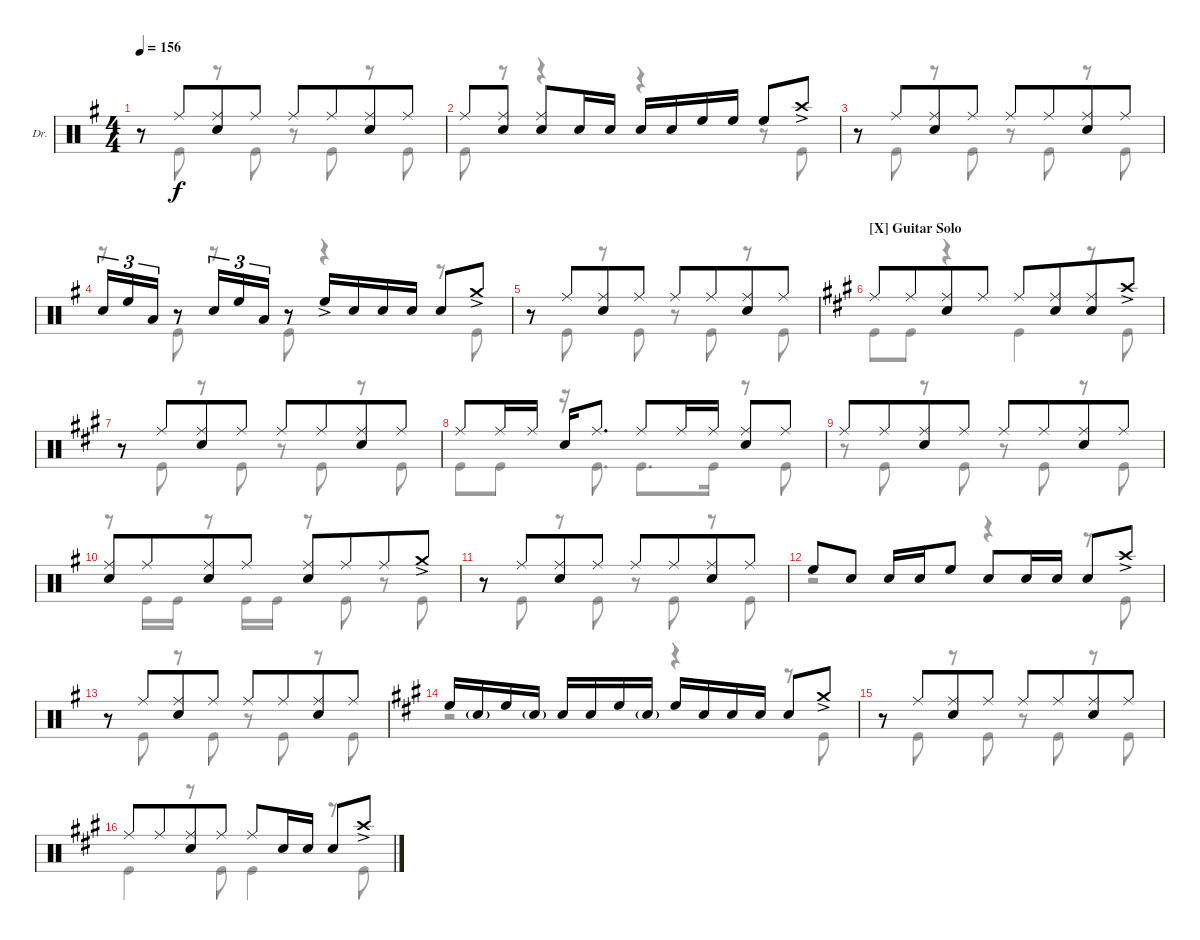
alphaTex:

\defaultSystemsLayout 4
\bracketExtendMode groupsimilarinstruments
\firstSystemTrackNameOrientation horizontal
\otherSystemsTrackNameOrientation horizontal
\track ("Drums" "Dr.") {instrument percussion}
\staff {score}
\articulation defaults
\voice
\ts (4 4)
\tempo 156
\clef neutral
\scale
0.296625
\ks g
r.8{dy f} "Ride (middle)".8{beam merge} ("Ride (middle)" "Snare (hit) 2").8 "Ride (middle)".8 "Ride (middle)".8 "Ride (middle)".8{beam merge} ("Ride (middle)" "Snare (hit) 2").8 "Ride (middle)".8 |
\scale
0.356872 "Ride (middle)".8 ("Ride (middle)" "Snare (hit) 2").8 ("Ride (middle)" "Snare (hit) 2").8 "Snare (hit) 2".16 "Snare (hit) 2".16 "Snare (hit) 2".16 "Snare (hit) 2".16 "High Floor Tom (hit)".16 "High Floor Tom (hit)".16 "High Floor Tom (hit)".8 "Crash high (hit)"{ac}.8 |
\scale
0.342372 r.8 "Ride (middle)".8{beam merge} ("Ride (middle)" "Snare (hit) 2").8 "Ride (middle)".8 "Ride (middle)".8 "Ride (middle)".8{beam merge} ("Ride (middle)" "Snare (hit) 2").8 "Ride (middle)".8 |
\scale
0.377852 "Snare (hit) 2".16{tu (3 2)} "High Floor Tom (hit)".16{tu (3 2)} "Low Tom (hit)".16{tu (3 2)} r.8 "Snare (hit) 2".16{tu (3 2)} "High Floor Tom (hit)".16{tu (3 2)} "Low Tom (hit)".16{tu (3 2)} r.8 "High Floor Tom (hit)"{ac}.16 "Snare (hit) 2".16 "Snare (hit) 2".16 "Snare (hit) 2".16 "Snare (hit) 2".8 "Crash medium (hit)"{ac}.8 |
\scale
0.27922 r.8 "Ride (middle)".8{beam merge} ("Ride (middle)" "Snare (hit) 2").8 "Ride (middle)".8 "Ride (middle)".8 "Ride (middle)".8{beam merge} ("Ride (middle)" "Snare (hit) 2").8 "Ride (middle)".8 |
\section ("X" "Guitar Solo")
\ks a "Ride (middle)".8 "Ride (middle)".8{beam merge}
("Ride (middle)" "Snare (hit) 2").8 "Ride (middle)".8 "Ride (middle)".8 ("Ride (middle)" "Snare (hit) 2").8{beam merge} ("Ride (middle)" "Snare (hit) 2").8 "Crash high (hit)"{ac}.8 |
r.8 "Ride (middle)".8{beam merge} ("Ride (middle)" "Snare (hit) 2").8 "Ride (middle)".8 "Ride (middle)".8 "Ride (middle)".8{beam merge} ("Ride (middle)" "Snare (hit) 2").8 "Ride (middle)".8 |
"Ride (middle)".8 "Ride (middle)".16 "Ride (middle)".16 "Snare (hit) 2".16 "Ride (middle)".8{d} "Ride (middle)".8 "Ride (middle)".16 "Ride (middle)".16 ("Ride (middle)" "Snare (hit) 2").8 "Ride (middle)".8 |
\scale
0.335589 "Ride (middle)".8 "Ride (middle)".8{beam merge} ("Ride (middle)" "Snare (hit) 2").8 "Ride (middle)".8 "Ride (middle)".8 "Ride (middle)".8{beam merge} ("Ride (middle)" "Snare (hit) 2").8 "Ride (middle)".8 |
\scale
0.330329
\ks g
("Snare (hit) 2" "Ride (middle)").8 "Ride (middle)".8{beam merge} ("Snare (hit) 2" "Ride (middle)").8{beam merge} "Ride (middle)".8{beam split} ("Snare (hit) 2" "Ride (middle)").8{beam merge} "Ride (middle)".8{beam merge} "Ride (middle)".8{beam merge} "Crash medium (hit)"{ac}.8{beam split} |
\scale
0.333409 r.8 "Ride (middle)".8{beam merge} ("Ride (middle)" "Snare (hit) 2").8 "Ride (middle)".8 "Ride (middle)".8 "Ride (middle)".8{beam merge} ("Ride (middle)" "Snare (hit) 2").8 "Ride (middle)".8 |
\scale
0.337499 "High Floor Tom (hit)".8 "Snare (hit) 2".8 "Snare (hit) 2".16 "Snare (hit) 2".16 "High Floor Tom (hit)".8 "Snare (hit) 2".8 "Snare (hit) 2".16 "Snare (hit) 2".16 "Snare (hit) 2".8 "Crash high (hit)"{ac}.8 |
\scale
0.313903 r.8 "Ride (middle)".8{beam merge} ("Ride (middle)" "Snare (hit) 2").8 "Ride (middle)".8 "Ride (middle)".8 "Ride (middle)".8{beam merge} ("Ride (middle)" "Snare (hit) 2").8 "Ride (middle)".8 |
\scale
0.348649
\ks a "High Floor Tom (hit)".16 "Snare (hit) 2"{g}.16 "High Floor Tom (hit)".16 "Snare (hit) 2"{g}.16 "Snare (hit) 2".16 "Snare (hit) 2".16 "High Floor Tom (hit)".16 "Snare (hit) 2"{g}.16 "High Floor Tom (hit)".16 "Snare (hit) 2".16 "Snare (hit) 2".16 "Snare (hit) 2".16 "Snare (hit) 2".8 "Crash medium (hit)"{ac}.8
|
\scale
0.352688 r.8 "Ride (middle)".8{beam merge} ("Ride (middle)" "Snare (hit) 2").8 "Ride (middle)".8 "Ride (middle)".8 "Ride (middle)".8{beam merge} ("Ride (middle)" "Snare (hit) 2").8 "Ride (middle)".8 |
\scale
0.312932 "Ride (middle)".8 "Ride (middle)".8{beam merge} ("Ride (middle)" "Snare (hit) 2").8 "Ride (middle)".8 "Ride (middle)".8 "Snare (hit) 2".16 "Snare (hit) 2".16 "Snare (hit) 2".8 "Crash high (hit)"{ac}.8
\voice
\clef neutral
\ottava regular
\simile none
\scale
0.296625
\ks g
r.8{dy f} "Kick (hit)".8 r.8 "Kick (hit)".8 r.8 "Kick (hit)".8 r.8 "Kick (hit)".8 |
\scale
0.356872 "Kick (hit)".8 r.8 r.4 r.4 r.8 "Kick (hit)".8 |
\scale
0.342372 r.8 "Kick (hit)".8 r.8 "Kick (hit)".8 r.8 "Kick (hit)".8 r.8 "Kick (hit)".8 |
\scale
0.377852 r.8 "Kick (hit)".8 r.8 "Kick (hit)".8 r.4 r.8 "Kick (hit)".8 |
\scale
0.27922 r.8 "Kick (hit)".8 r.8 "Kick (hit)".8 r.8 "Kick (hit)".8 r.8 "Kick (hit)".8 |
\ks a "Kick (hit)".8 "Kick (hit)".8
r.4 "Kick (hit)".4 r.8 "Kick (hit)".8 |
r.8 "Kick (hit)".8 r.8 "Kick (hit)".8 r.8 "Kick (hit)".8 r.8 "Kick (hit)".8 |
"Kick (hit)".8 "Kick (hit)".8 r.16 "Kick (hit)".8{d} "Kick (hit)".8{d} "Kick (hit)".16 r.8 "Kick (hit)".8 |
\scale
0.335589 r.8 "Kick (hit)".8 r.8 "Kick (hit)".8 r.8 "Kick (hit)".8 r.8 "Kick (hit)".8 |
\scale
0.330329
\ks g
r.8 "Kick (hit)".16 "Kick (hit)".16 r.8 "Kick (hit)".16 "Kick (hit)".16 r.8 "Kick (hit)".8 r.8 "Kick (hit)".8 |
\scale
0.333409 r.8 "Kick (hit)".8 r.8 "Kick (hit)".8 r.8 "Kick (hit)".8 r.8 "Kick (hit)".8 |
\scale
0.337499 r.2 r.4 r.8 "Kick (hit)".8 |
\scale
0.313903 r.8 "Kick (hit)".8 r.8 "Kick (hit)".8 r.8 "Kick (hit)".8 r.8 "Kick (hit)".8 |
\scale
0.348649
\ks a
r.2 r.4 r.8 "Kick (hit)".8 |
\scale
0.352688 r.8 "Kick (hit)".8 r.8 "Kick (hit)".8 r.8 "Kick (hit)".8 r.8 "Kick (hit)".8 |
\scale
0.312932 "Kick (hit)".4 r.8 "Kick (hit)".8 "Kick (hit)".4 r.8 "Kick (hit)".8
